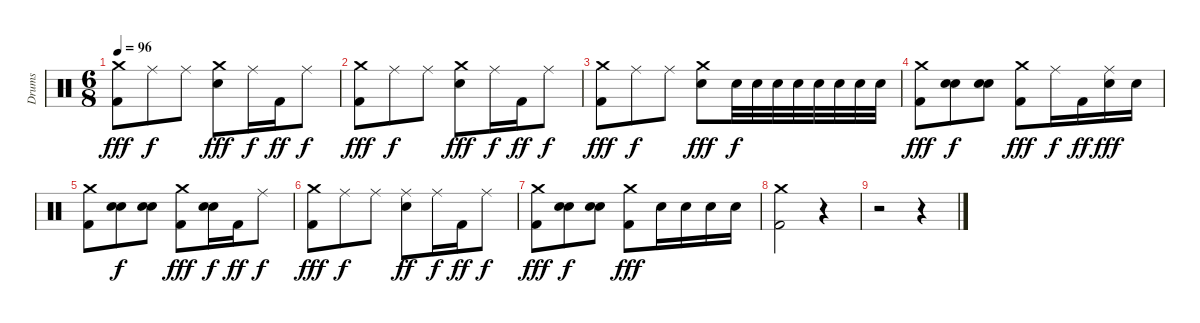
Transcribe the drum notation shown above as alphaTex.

\track ("Drums" "Drums") {instrument percussion}
\staff {score}
\articulation defaults
\ts (6 8)
\tempo 96
\clef neutral
\ks c
("Kick (hit) 2" "Crash medium (hit)").8{dy fff} "Ride (middle)".8{dy f} "Ride (middle)".8 ("Electric Snare (hit)" "Crash medium (hit)").8{dy fff} "Ride (middle)".16{dy f} "Kick (hit) 2".16{dy ff} "Ride (middle)".8{dy f} |
("Kick (hit) 2" "Crash medium (hit)").8{dy fff} "Ride (middle)".8{dy f} "Ride (middle)".8 ("Electric Snare (hit)" "Crash medium (hit)").8{dy fff} "Ride (middle)".16{dy f} "Kick (hit) 2".16{dy ff} "Ride (middle)".8{dy f} |
("Kick (hit) 2" "Crash medium (hit)").8{dy fff} "Ride (middle)".8{dy f} "Ride (middle)".8 ("Electric Snare (hit)" "Crash medium (hit)").8{dy fff} "Electric Snare (hit)".32{dy f} "Electric Snare (hit)".32 "Electric Snare (hit)".32 "Electric Snare (hit)".32 "Electric Snare (hit)".32 "Electric Snare (hit)".32 "Electric Snare (hit)".32 "Electric Snare (hit)".32 |
("Kick (hit) 2" "Crash medium (hit)").8{dy fff} ("Electric Snare (hit)" "Electric Snare (hit)").8{dy f} ("Electric Snare (hit)" "Electric Snare (hit)").8 ("Kick (hit) 2" "Crash medium (hit)").8{dy fff} "Ride (middle)".16{dy f} "Kick (hit) 2".16{dy ff} ("Ride (middle)" "Electric Snare (hit)").16{dy fff} "Electric Snare (hit)".16 |
("Kick (hit) 2" "Crash medium (hit)").8 ("Electric Snare (hit)" "Electric Snare (hit)").8{dy f} ("Electric Snare (hit)" "Electric Snare (hit)").8 ("Kick (hit) 2" "Crash medium (hit)").8{dy fff} ("Electric Snare (hit)" "Electric Snare (hit)").16{dy f} "Kick (hit) 2".16{dy ff} "Ride (middle)".8{dy f} |
("Kick (hit) 2" "Crash medium (hit)").8{dy fff} "Ride (middle)".8{dy f} "Ride (middle)".8 ("Electric Snare (hit)" "Ride (middle)").8{dy ff} "Ride (middle)".16{dy f} "Kick (hit) 2".16{dy ff} "Ride (middle)".8{dy f} |
("Kick (hit) 2" "Crash medium (hit)").8{dy fff} ("Electric Snare (hit)" "Electric Snare (hit)").8{dy f} ("Electric Snare (hit)" "Electric Snare (hit)").8 ("Kick (hit) 2" "Crash medium (hit)").8{dy fff} "Electric Snare (hit)".16 "Electric Snare (hit)".16 "Electric Snare (hit)".16 "Electric Snare (hit)".16 |
("Crash medium (hit)" "Kick (hit) 2").2 r.4 |
r.2 r.4
